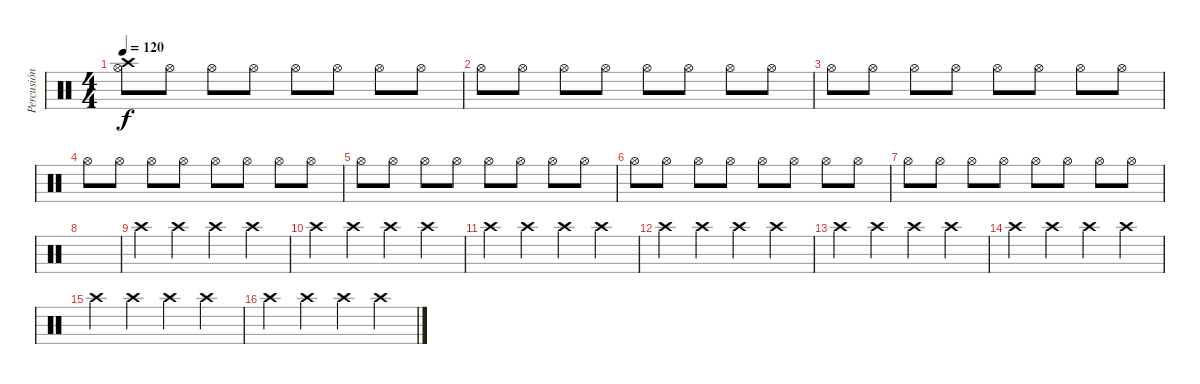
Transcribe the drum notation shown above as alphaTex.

\track ("Percusión" "Percusión") {instrument percussion}
\staff {score}
\articulation defaults
\ts (4 4)
\tempo 120
\clef neutral
\ks c
("Hi-Hat (open)" "Crash high (hit)").8{dy f} "Hi-Hat (open)".8 "Hi-Hat (open)".8 "Hi-Hat (open)".8 "Hi-Hat (open)".8 "Hi-Hat (open)".8 "Hi-Hat (open)".8 "Hi-Hat (open)".8 |
"Hi-Hat (open)".8 "Hi-Hat (open)".8 "Hi-Hat (open)".8 "Hi-Hat (open)".8 "Hi-Hat (open)".8 "Hi-Hat (open)".8 "Hi-Hat (open)".8 "Hi-Hat (open)".8 |
"Hi-Hat (open)".8 "Hi-Hat (open)".8 "Hi-Hat (open)".8 "Hi-Hat (open)".8 "Hi-Hat (open)".8 "Hi-Hat (open)".8 "Hi-Hat (open)".8 "Hi-Hat (open)".8 |
"Hi-Hat (open)".8 "Hi-Hat (open)".8 "Hi-Hat (open)".8 "Hi-Hat (open)".8 "Hi-Hat (open)".8 "Hi-Hat (open)".8 "Hi-Hat (open)".8 "Hi-Hat (open)".8 |
"Hi-Hat (open)".8 "Hi-Hat (open)".8 "Hi-Hat (open)".8 "Hi-Hat (open)".8 "Hi-Hat (open)".8 "Hi-Hat (open)".8 "Hi-Hat (open)".8 "Hi-Hat (open)".8 |
"Hi-Hat (open)".8 "Hi-Hat (open)".8 "Hi-Hat (open)".8 "Hi-Hat (open)".8 "Hi-Hat (open)".8 "Hi-Hat (open)".8 "Hi-Hat (open)".8 "Hi-Hat (open)".8 |
"Hi-Hat (open)".8 "Hi-Hat (open)".8 "Hi-Hat (open)".8 "Hi-Hat (open)".8 "Hi-Hat (open)".8 "Hi-Hat (open)".8 "Hi-Hat (open)".8 "Hi-Hat (open)".8 |
|
"Crash high (hit)".4 "Crash high (hit)".4 "Crash high (hit)".4 "Crash high (hit)".4 |
"Crash high (hit)".4 "Crash high (hit)".4 "Crash high (hit)".4 "Crash high (hit)".4 |
"Crash high (hit)".4 "Crash high (hit)".4 "Crash high (hit)".4 "Crash high (hit)".4 |
"Crash high (hit)".4 "Crash high (hit)".4 "Crash high (hit)".4 "Crash high (hit)".4 |
"Crash high (hit)".4 "Crash high (hit)".4 "Crash high (hit)".4 "Crash high (hit)".4 |
"Crash high (hit)".4 "Crash high (hit)".4 "Crash high (hit)".4 "Crash high (hit)".4 |
"Crash high (hit)".4 "Crash high (hit)".4 "Crash high (hit)".4 "Crash high (hit)".4 |
"Crash high (hit)".4 "Crash high (hit)".4 "Crash high (hit)".4 "Crash high (hit)".4
